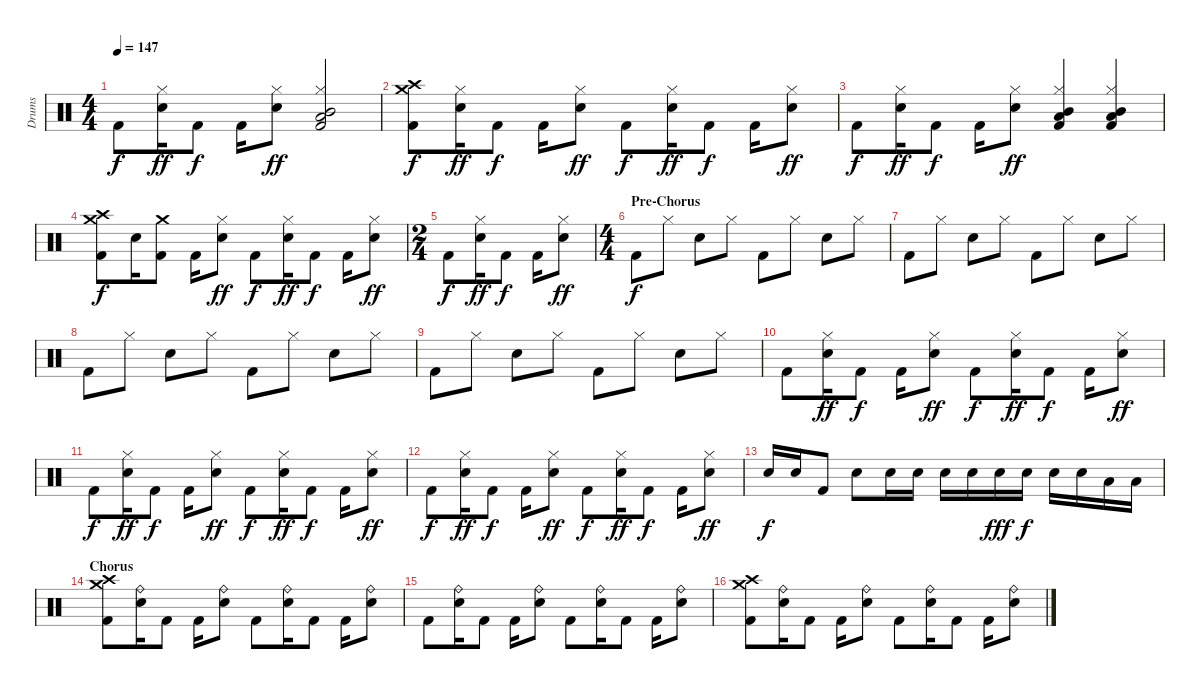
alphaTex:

\track ("Drums" "Drums") {instrument percussion}
\staff {score}
\articulation defaults
\ts (4 4)
\tempo 147
\clef neutral
\ks c "Kick (hit) 2".8{dy f}
("Hi-Hat (closed)" "Electric Snare (hit)").16{dy ff} "Kick (hit) 2".8{dy f} "Kick (hit) 2".16 ("Hi-Hat (closed)" "Electric Snare (hit)").8{dy ff} ("Hi-Hat (closed)" "Low Floor Tom (hit)" "Mid Tom (hit)" "Kick (hit) 2").2 |
("Crash high (hit)" "Crash medium (hit)" "Kick (hit) 2").8{dy f} ("Hi-Hat (closed)" "Electric Snare (hit)").16{dy ff} "Kick (hit) 2".8{dy f} "Kick (hit) 2".16 ("Hi-Hat (closed)" "Electric Snare (hit)").8{dy ff} "Kick (hit) 2".8{dy f} ("Hi-Hat (closed)" "Electric Snare (hit)").16{dy ff} "Kick (hit) 2".8{dy f} "Kick (hit) 2".16 ("Hi-Hat (closed)" "Electric Snare (hit)").8{dy ff} |
"Kick (hit) 2".8{dy f} ("Hi-Hat (closed)" "Electric Snare (hit)").16{dy ff} "Kick (hit) 2".8{dy f} "Kick (hit) 2".16 ("Hi-Hat (closed)" "Electric Snare (hit)").8{dy ff} ("Hi-Hat (closed)" "Low Floor Tom (hit)" "Mid Tom (hit)" "Kick (hit) 2").4 ("Hi-Hat (closed)" "Low Floor Tom (hit)" "Mid Tom (hit)" "Kick (hit) 2").4 |
("Crash high (hit)" "Crash medium (hit)" "Kick (hit) 2").8{dy f} "Electric Snare (hit)".16 ("Crash medium (hit)" "Kick (hit) 2").8 "Kick (hit) 2".16 ("Hi-Hat (closed)" "Electric Snare (hit)").8{dy ff} "Kick (hit) 2".8{dy f} ("Hi-Hat (closed)" "Electric Snare (hit)").16{dy ff} "Kick (hit) 2".8{dy f} "Kick (hit) 2".16 ("Hi-Hat (closed)" "Electric Snare (hit)").8{dy ff} |
\ts (2 4)
"Kick (hit) 2".8{dy f} ("Hi-Hat (closed)" "Electric Snare (hit)").16{dy ff} "Kick (hit) 2".8{dy f} "Kick (hit) 2".16 ("Hi-Hat (closed)" "Electric Snare (hit)").8{dy ff} |
\ts (4 4)
\section ("" "Pre-Chorus")
"Kick (hit) 2".8{dy f} "Hi-Hat (closed)".8 "Electric Snare (hit)".8 "Hi-Hat (closed)".8 "Kick (hit) 2".8 "Hi-Hat (closed)".8 "Electric Snare (hit)".8 "Hi-Hat (closed)".8 |
"Kick (hit) 2".8 "Hi-Hat (closed)".8 "Electric Snare (hit)".8 "Hi-Hat (closed)".8 "Kick (hit) 2".8 "Hi-Hat (closed)".8 "Electric Snare (hit)".8 "Hi-Hat (closed)".8 |
"Kick (hit) 2".8 "Hi-Hat (closed)".8 "Electric Snare (hit)".8 "Hi-Hat (closed)".8 "Kick (hit) 2".8 "Hi-Hat (closed)".8 "Electric Snare (hit)".8 "Hi-Hat (closed)".8 |
"Kick (hit) 2".8 "Hi-Hat (closed)".8 "Electric Snare (hit)".8 "Hi-Hat (closed)".8 "Kick (hit) 2".8 "Hi-Hat (closed)".8 "Electric Snare (hit)".8 "Hi-Hat (closed)".8 |
"Kick (hit) 2".8 ("Hi-Hat (closed)" "Electric Snare (hit)").16{dy ff} "Kick (hit) 2".8{dy f} "Kick (hit) 2".16 ("Hi-Hat (closed)" "Electric Snare (hit)").8{dy ff} "Kick (hit) 2".8{dy f} ("Hi-Hat (closed)" "Electric Snare (hit)").16{dy ff} "Kick (hit) 2".8{dy f} "Kick (hit) 2".16 ("Hi-Hat (closed)" "Electric Snare (hit)").8{dy ff} |
"Kick (hit) 2".8{dy f} ("Hi-Hat (closed)" "Electric Snare (hit)").16{dy ff} "Kick (hit) 2".8{dy f} "Kick (hit) 2".16 ("Hi-Hat (closed)" "Electric Snare (hit)").8{dy ff} "Kick (hit) 2".8{dy f} ("Hi-Hat (closed)" "Electric Snare (hit)").16{dy ff} "Kick (hit) 2".8{dy f} "Kick (hit) 2".16 ("Hi-Hat (closed)" "Electric Snare (hit)").8{dy ff} |
"Kick (hit) 2".8{dy f} ("Hi-Hat (closed)" "Electric Snare (hit)").16{dy ff} "Kick (hit) 2".8{dy f} "Kick (hit) 2".16 ("Hi-Hat (closed)" "Electric Snare (hit)").8{dy ff} "Kick (hit) 2".8{dy f} ("Hi-Hat (closed)" "Electric Snare (hit)").16{dy ff} "Kick (hit) 2".8{dy f} "Kick (hit) 2".16 ("Hi-Hat (closed)" "Electric Snare (hit)").8{dy ff} |
"Electric Snare (hit)".16{dy f} "Electric Snare (hit)".16 "Kick (hit) 2".8 "Electric Snare (hit)".8 "Electric Snare (hit)".16 "Electric Snare (hit)".16 "Electric Snare (hit)".16 "Electric Snare (hit)".16 "Electric Snare (hit)".16{dy fff} "Electric Snare (hit)".16{dy f} "Electric Snare (hit)".16 "Electric Snare (hit)".16 "Low Tom (hit)".16 "Low Tom (hit)".16 |
\section ("" "Chorus")
("Crash high (hit)" "Crash medium (hit)" "Kick (hit) 2").8 ("Ride (bell)" "Electric Snare (hit)").16 "Kick (hit) 2".8 "Kick (hit) 2".16 ("Ride (bell)" "Electric Snare (hit)").8 "Kick (hit) 2".8 ("Ride (bell)" "Electric Snare (hit)").16 "Kick (hit) 2".8 "Kick (hit) 2".16 ("Ride (bell)" "Electric Snare (hit)").8 |
"Kick (hit) 2".8 ("Ride (bell)" "Electric Snare (hit)").16 "Kick (hit) 2".8 "Kick (hit) 2".16 ("Ride (bell)" "Electric Snare (hit)").8 "Kick (hit) 2".8 ("Ride (bell)" "Electric Snare (hit)").16 "Kick (hit) 2".8 "Kick (hit) 2".16 ("Ride (bell)" "Electric Snare (hit)").8 |
("Crash high (hit)" "Crash medium (hit)" "Kick (hit) 2").8 ("Ride (bell)" "Electric Snare (hit)").16 "Kick (hit) 2".8 "Kick (hit) 2".16 ("Ride (bell)" "Electric Snare (hit)").8 "Kick (hit) 2".8 ("Ride (bell)" "Electric Snare (hit)").16 "Kick (hit) 2".8 "Kick (hit) 2".16 ("Ride (bell)" "Electric Snare (hit)").8
